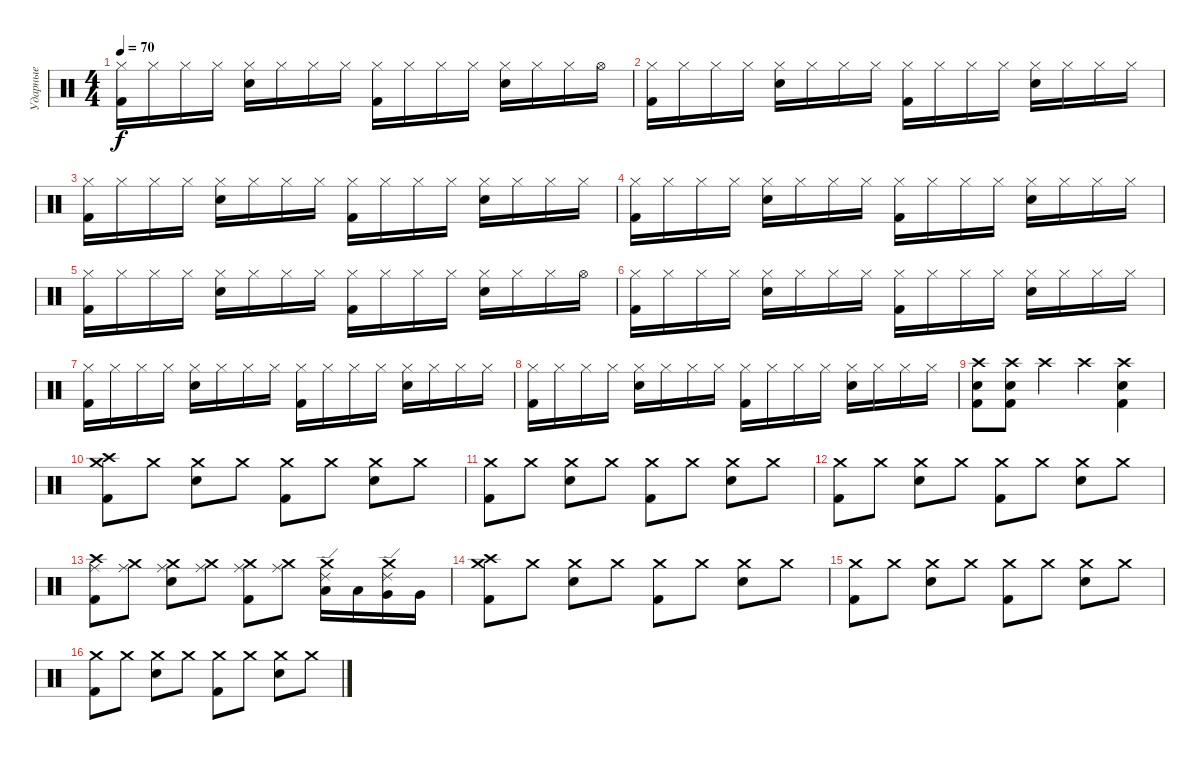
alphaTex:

\track ("Ударные" "Ударные") {instrument percussion}
\staff {score}
\articulation defaults
\ts (4 4)
\tempo 70
\clef neutral
\ks c
("Hi-Hat (closed)" "Kick (hit) 2").16{dy f} "Hi-Hat (closed)".16 "Hi-Hat (closed)".16 "Hi-Hat (closed)".16 ("Hi-Hat (closed)" "Electric Snare (hit)").16 "Hi-Hat (closed)".16 "Hi-Hat (closed)".16 "Hi-Hat (closed)".16 ("Hi-Hat (closed)" "Kick (hit) 2").16 "Hi-Hat (closed)".16 "Hi-Hat (closed)".16 "Hi-Hat (closed)".16 ("Hi-Hat (closed)" "Electric Snare (hit)").16 "Hi-Hat (closed)".16 "Hi-Hat (closed)".16 "Hi-Hat (open)".16 |
("Hi-Hat (closed)" "Kick (hit) 2").16 "Hi-Hat (closed)".16 "Hi-Hat (closed)".16 "Hi-Hat (closed)".16 ("Hi-Hat (closed)" "Electric Snare (hit)").16 "Hi-Hat (closed)".16 "Hi-Hat (closed)".16 "Hi-Hat (closed)".16 ("Hi-Hat (closed)" "Kick (hit) 2").16 "Hi-Hat (closed)".16 "Hi-Hat (closed)".16 "Hi-Hat (closed)".16 ("Hi-Hat (closed)" "Electric Snare (hit)").16 "Hi-Hat (closed)".16 "Hi-Hat (closed)".16 "Hi-Hat (closed)".16 |
("Hi-Hat (closed)" "Kick (hit) 2").16 "Hi-Hat (closed)".16 "Hi-Hat (closed)".16 "Hi-Hat (closed)".16 ("Hi-Hat (closed)" "Electric Snare (hit)").16 "Hi-Hat (closed)".16 "Hi-Hat (closed)".16 "Hi-Hat (closed)".16 ("Hi-Hat (closed)" "Kick (hit) 2").16 "Hi-Hat (closed)".16 "Hi-Hat (closed)".16 "Hi-Hat (closed)".16 ("Hi-Hat (closed)" "Electric Snare (hit)").16 "Hi-Hat (closed)".16 "Hi-Hat (closed)".16 "Hi-Hat (closed)".16 |
("Hi-Hat (closed)" "Kick (hit) 2").16 "Hi-Hat (closed)".16 "Hi-Hat (closed)".16 "Hi-Hat (closed)".16 ("Hi-Hat (closed)" "Electric Snare (hit)").16 "Hi-Hat (closed)".16 "Hi-Hat (closed)".16 "Hi-Hat (closed)".16 ("Hi-Hat (closed)" "Kick (hit) 2").16 "Hi-Hat (closed)".16 "Hi-Hat (closed)".16 "Hi-Hat (closed)".16 ("Hi-Hat (closed)" "Electric Snare (hit)").16 "Hi-Hat (closed)".16 "Hi-Hat (closed)".16 "Hi-Hat (closed)".16 |
("Hi-Hat (closed)" "Kick (hit) 2").16 "Hi-Hat (closed)".16 "Hi-Hat (closed)".16 "Hi-Hat (closed)".16 ("Hi-Hat (closed)" "Electric Snare (hit)").16 "Hi-Hat (closed)".16 "Hi-Hat (closed)".16 "Hi-Hat (closed)".16 ("Hi-Hat (closed)" "Kick (hit) 2").16 "Hi-Hat (closed)".16 "Hi-Hat (closed)".16 "Hi-Hat (closed)".16 ("Hi-Hat (closed)" "Electric Snare (hit)").16 "Hi-Hat (closed)".16 "Hi-Hat (closed)".16 "Hi-Hat (open)".16 |
("Hi-Hat (closed)" "Kick (hit) 2").16 "Hi-Hat (closed)".16 "Hi-Hat (closed)".16 "Hi-Hat (closed)".16 ("Hi-Hat (closed)" "Electric Snare (hit)").16 "Hi-Hat (closed)".16 "Hi-Hat (closed)".16 "Hi-Hat (closed)".16 ("Hi-Hat (closed)" "Kick (hit) 2").16 "Hi-Hat (closed)".16 "Hi-Hat (closed)".16 "Hi-Hat (closed)".16 ("Hi-Hat (closed)" "Electric Snare (hit)").16 "Hi-Hat (closed)".16 "Hi-Hat (closed)".16 "Hi-Hat (closed)".16 |
("Hi-Hat (closed)" "Kick (hit) 2").16 "Hi-Hat (closed)".16 "Hi-Hat (closed)".16 "Hi-Hat (closed)".16 ("Hi-Hat (closed)" "Electric Snare (hit)").16 "Hi-Hat (closed)".16 "Hi-Hat (closed)".16 "Hi-Hat (closed)".16 ("Hi-Hat (closed)" "Kick (hit) 2").16 "Hi-Hat (closed)".16 "Hi-Hat (closed)".16 "Hi-Hat (closed)".16 ("Hi-Hat (closed)" "Electric Snare (hit)").16 "Hi-Hat (closed)".16 "Hi-Hat (closed)".16 "Hi-Hat (closed)".16 |
("Hi-Hat (closed)" "Kick (hit) 2").16 "Hi-Hat (closed)".16 "Hi-Hat (closed)".16 "Hi-Hat (closed)".16 ("Hi-Hat (closed)" "Electric Snare (hit)").16 "Hi-Hat (closed)".16 "Hi-Hat (closed)".16 "Hi-Hat (closed)".16 ("Hi-Hat (closed)" "Kick (hit) 2").16 "Hi-Hat (closed)".16 "Hi-Hat (closed)".16 "Hi-Hat (closed)".16 ("Hi-Hat (closed)" "Electric Snare (hit)").16 "Hi-Hat (closed)".16 "Hi-Hat (closed)".16 "Hi-Hat (closed)".16 |
("Kick (hit) 2" "Electric Snare (hit)" "Crash high (hit)").8 ("Kick (hit) 2" "Electric Snare (hit)" "Crash high (hit)").8 "Crash high (hit)".4 "Crash high (hit)".4 ("Crash high (hit)" "Kick (hit) 2" "Electric Snare (hit)").4 |
("Crash medium (hit)" "Kick (hit) 2" "Crash high (hit)").8 "Crash medium (hit)".8 ("Crash medium (hit)" "Electric Snare (hit)").8 "Crash medium (hit)".8 ("Crash medium (hit)" "Kick (hit) 2").8 "Crash medium (hit)".8 ("Crash medium (hit)" "Electric Snare (hit)").8 "Crash medium (hit)".8 |
("Crash medium (hit)" "Kick (hit) 2").8 "Crash medium (hit)".8 ("Crash medium (hit)" "Electric Snare (hit)").8 "Crash medium (hit)".8 ("Crash medium (hit)" "Kick (hit) 2").8 "Crash medium (hit)".8 ("Crash medium (hit)" "Electric Snare (hit)").8 "Crash medium (hit)".8 |
("Crash medium (hit)" "Kick (hit) 2").8 "Crash medium (hit)".8 ("Crash medium (hit)" "Electric Snare (hit)").8 "Crash medium (hit)".8 ("Crash medium (hit)" "Kick (hit) 2").8 "Crash medium (hit)".8 ("Crash medium (hit)" "Electric Snare (hit)").8 "Crash medium (hit)".8 |
("Ride (middle)" "Kick (hit) 2" "Crash high (hit)").8 ("Crash medium (hit)" "Ride (middle)").8 ("Crash medium (hit)" "Electric Snare (hit)" "Ride (middle)").8 ("Crash medium (hit)" "Ride (middle)").8 ("Crash medium (hit)" "Kick (hit) 2" "Ride (middle)").8 ("Crash medium (hit)" "Ride (middle)").8 ("Low Tom (hit)" "Crash medium (hit)" "Ride (edge) 2").16 "Low Tom (hit)".16 ("Very Low Tom (hit)" "Ride (edge) 2" "Crash medium (hit)").16 "Very Low Tom (hit)".16 |
("Crash medium (hit)" "Kick (hit) 2" "Crash high (hit)").8 "Crash medium (hit)".8 ("Crash medium (hit)" "Electric Snare (hit)").8 "Crash medium (hit)".8 ("Crash medium (hit)" "Kick (hit) 2").8 "Crash medium (hit)".8 ("Crash medium (hit)" "Electric Snare (hit)").8 "Crash medium (hit)".8 |
("Crash medium (hit)" "Kick (hit) 2").8 "Crash medium (hit)".8 ("Crash medium (hit)" "Electric Snare (hit)").8 "Crash medium (hit)".8 ("Crash medium (hit)" "Kick (hit) 2").8 "Crash medium (hit)".8 ("Crash medium (hit)" "Electric Snare (hit)").8 "Crash medium (hit)".8 |
("Crash medium (hit)" "Kick (hit) 2").8 "Crash medium (hit)".8 ("Crash medium (hit)" "Electric Snare (hit)").8 "Crash medium (hit)".8 ("Crash medium (hit)" "Kick (hit) 2").8 "Crash medium (hit)".8 ("Crash medium (hit)" "Electric Snare (hit)").8 "Crash medium (hit)".8
